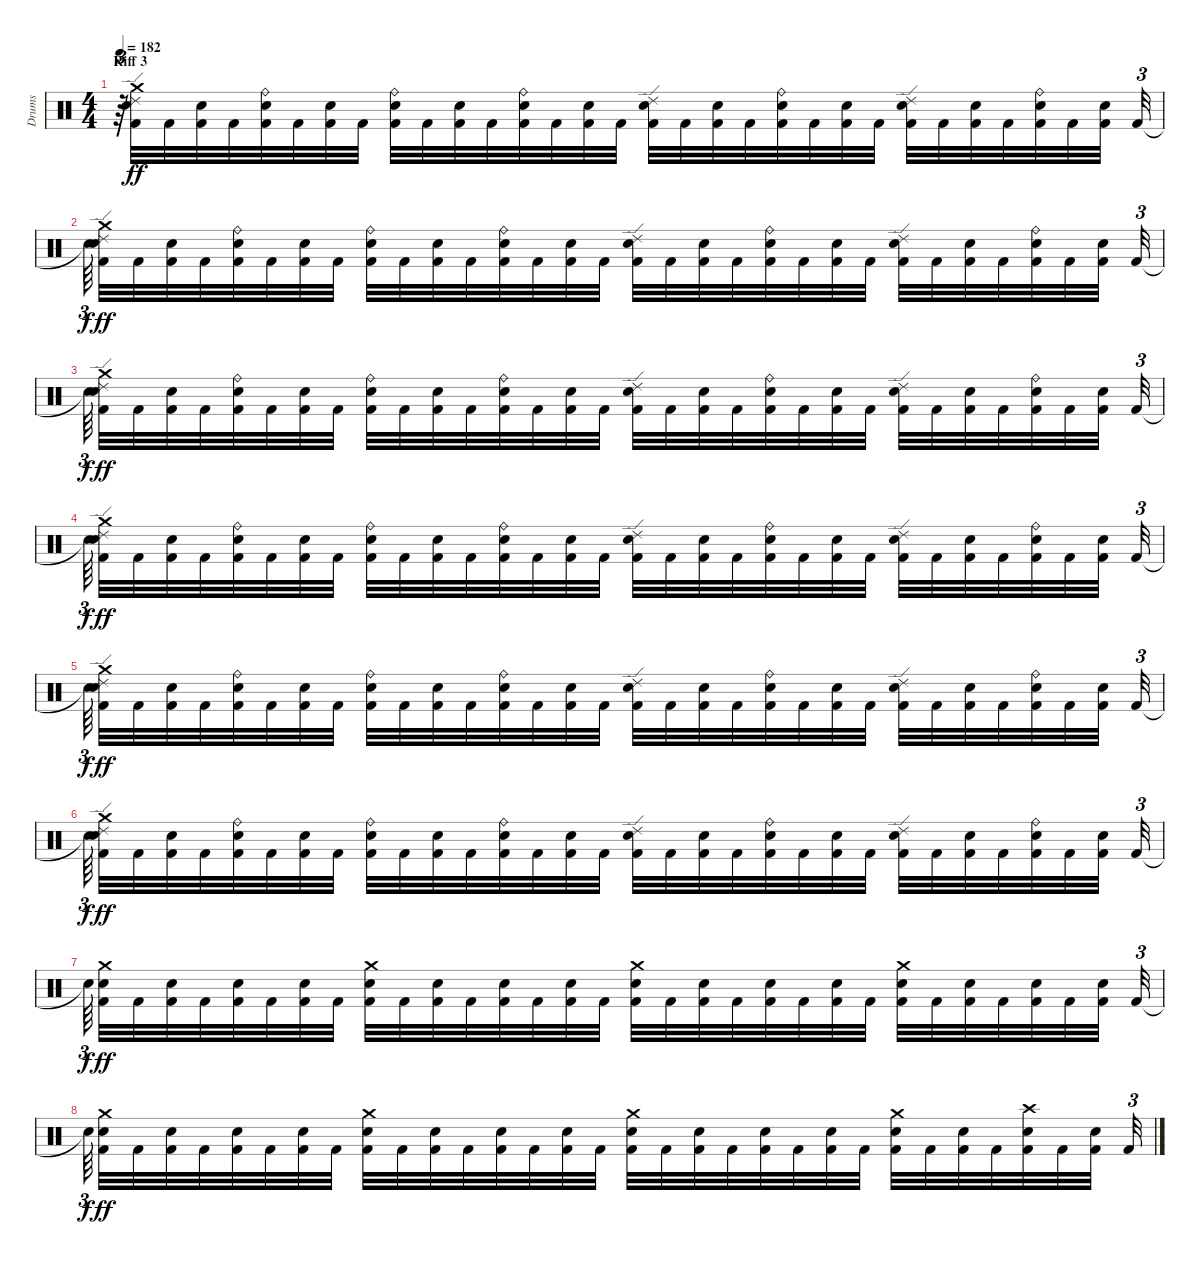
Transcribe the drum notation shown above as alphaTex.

\track ("Drums" "Drums") {instrument percussion}
\staff {score}
\articulation defaults
\ts (4 4)
\section ("" "Riff 3")
\tempo 182
\clef neutral
\ks c
r.64{tu (3 2) dy f} ("Kick (hit) 2" "Snare (hit) 2" "Ride (edge) 2" "Crash medium (hit)").32{dy ff} "Kick (hit) 2".32 ("Kick (hit) 2" "Snare (hit) 2").32 "Kick (hit) 2".32 ("Kick (hit) 2" "Snare (hit) 2" "Ride (bell)").32 "Kick (hit) 2".32 ("Kick (hit) 2" "Snare (hit) 2").32 "Kick (hit) 2".32 ("Kick (hit) 2" "Snare (hit) 2" "Ride (bell)").32 "Kick (hit) 2".32 ("Kick (hit) 2" "Snare (hit) 2").32 "Kick (hit) 2".32 ("Kick (hit) 2" "Snare (hit) 2" "Ride (bell)").32 "Kick (hit) 2".32 ("Kick (hit) 2" "Snare (hit) 2").32 "Kick (hit) 2".32 ("Kick (hit) 2" "Snare (hit) 2" "Ride (edge) 2").32 "Kick (hit) 2".32 ("Kick (hit) 2" "Snare (hit) 2").32 "Kick (hit) 2".32 ("Kick (hit) 2" "Snare (hit) 2" "Ride (bell)").32 "Kick (hit) 2".32 ("Kick (hit) 2" "Snare (hit) 2").32 "Kick (hit) 2".32 ("Kick (hit) 2" "Snare (hit) 2" "Ride (edge) 2").32 "Kick (hit) 2".32 ("Kick (hit) 2" "Snare (hit) 2").32 "Kick (hit) 2".32 ("Kick (hit) 2" "Snare (hit) 2" "Ride (bell)").32 "Kick (hit) 2".32 ("Kick (hit) 2" "Snare (hit) 2").32{beam splitsecondary} "Kick (hit) 2".32{tu (3 2)} |
"Snare (hit)"{t}.64{tu (3 2) dy f beam splitsecondary} ("Kick (hit) 2" "Snare (hit) 2" "Ride (edge) 2" "Crash medium (hit)").32{dy ff} "Kick (hit) 2".32 ("Kick (hit) 2" "Snare (hit) 2").32 "Kick (hit) 2".32 ("Kick (hit) 2" "Snare (hit) 2" "Ride (bell)").32 "Kick (hit) 2".32 ("Kick (hit) 2" "Snare (hit) 2").32 "Kick (hit) 2".32 ("Kick (hit) 2" "Snare (hit) 2" "Ride (bell)").32 "Kick (hit) 2".32 ("Kick (hit) 2" "Snare (hit) 2").32 "Kick (hit) 2".32 ("Kick (hit) 2" "Snare (hit) 2" "Ride (bell)").32 "Kick (hit) 2".32 ("Kick (hit) 2" "Snare (hit) 2").32 "Kick (hit) 2".32 ("Kick (hit) 2" "Snare (hit) 2" "Ride (edge) 2").32 "Kick (hit) 2".32 ("Kick (hit) 2" "Snare (hit) 2").32 "Kick (hit) 2".32 ("Kick (hit) 2" "Snare (hit) 2" "Ride (bell)").32 "Kick (hit) 2".32 ("Kick (hit) 2" "Snare (hit) 2").32 "Kick (hit) 2".32 ("Kick (hit) 2" "Snare (hit) 2" "Ride (edge) 2").32 "Kick (hit) 2".32 ("Kick (hit) 2" "Snare (hit) 2").32 "Kick (hit) 2".32 ("Kick (hit) 2" "Snare (hit) 2" "Ride (bell)").32 "Kick (hit) 2".32 ("Kick (hit) 2" "Snare (hit) 2").32{beam splitsecondary} "Kick (hit) 2".32{tu (3 2)} |
"Snare (hit)"{t}.64{tu (3 2) dy f beam splitsecondary} ("Kick (hit) 2" "Snare (hit) 2" "Ride (edge) 2" "Crash medium (hit)").32{dy ff} "Kick (hit) 2".32 ("Kick (hit) 2" "Snare (hit) 2").32 "Kick (hit) 2".32 ("Kick (hit) 2" "Snare (hit) 2" "Ride (bell)").32 "Kick (hit) 2".32 ("Kick (hit) 2" "Snare (hit) 2").32 "Kick (hit) 2".32 ("Kick (hit) 2" "Snare (hit) 2" "Ride (bell)").32 "Kick (hit) 2".32 ("Kick (hit) 2" "Snare (hit) 2").32 "Kick (hit) 2".32 ("Kick (hit) 2" "Snare (hit) 2" "Ride (bell)").32 "Kick (hit) 2".32 ("Kick (hit) 2" "Snare (hit) 2").32 "Kick (hit) 2".32 ("Kick (hit) 2" "Snare (hit) 2" "Ride (edge) 2").32 "Kick (hit) 2".32 ("Kick (hit) 2" "Snare (hit) 2").32 "Kick (hit) 2".32 ("Kick (hit) 2" "Snare (hit) 2" "Ride (bell)").32 "Kick (hit) 2".32 ("Kick (hit) 2" "Snare (hit) 2").32 "Kick (hit) 2".32 ("Kick (hit) 2" "Snare (hit) 2" "Ride (edge) 2").32 "Kick (hit) 2".32 ("Kick (hit) 2" "Snare (hit) 2").32 "Kick (hit) 2".32 ("Kick (hit) 2" "Snare (hit) 2" "Ride (bell)").32 "Kick (hit) 2".32 ("Kick (hit) 2" "Snare (hit) 2").32{beam splitsecondary} "Kick (hit) 2".32{tu (3 2)} |
"Snare (hit)"{t}.64{tu (3 2) dy f beam splitsecondary} ("Kick (hit) 2" "Snare (hit) 2" "Ride (edge) 2" "Crash medium (hit)").32{dy ff} "Kick (hit) 2".32 ("Kick (hit) 2" "Snare (hit) 2").32 "Kick (hit) 2".32 ("Kick (hit) 2" "Snare (hit) 2" "Ride (bell)").32 "Kick (hit) 2".32 ("Kick (hit) 2" "Snare (hit) 2").32 "Kick (hit) 2".32 ("Kick (hit) 2" "Snare (hit) 2" "Ride (bell)").32 "Kick (hit) 2".32 ("Kick (hit) 2" "Snare (hit) 2").32 "Kick (hit) 2".32 ("Kick (hit) 2" "Snare (hit) 2" "Ride (bell)").32 "Kick (hit) 2".32 ("Kick (hit) 2" "Snare (hit) 2").32 "Kick (hit) 2".32 ("Kick (hit) 2" "Snare (hit) 2" "Ride (edge) 2").32 "Kick (hit) 2".32 ("Kick (hit) 2" "Snare (hit) 2").32 "Kick (hit) 2".32 ("Kick (hit) 2" "Snare (hit) 2" "Ride (bell)").32 "Kick (hit) 2".32 ("Kick (hit) 2" "Snare (hit) 2").32 "Kick (hit) 2".32 ("Kick (hit) 2" "Snare (hit) 2" "Ride (edge) 2").32 "Kick (hit) 2".32 ("Kick (hit) 2" "Snare (hit) 2").32 "Kick (hit) 2".32 ("Kick (hit) 2" "Snare (hit) 2" "Ride (bell)").32 "Kick (hit) 2".32 ("Kick (hit) 2" "Snare (hit) 2").32{beam splitsecondary} "Kick (hit) 2".32{tu (3 2)} |
"Snare (hit)"{t}.64{tu (3 2) dy f beam splitsecondary} ("Kick (hit) 2" "Snare (hit) 2" "Ride (edge) 2" "Crash medium (hit)").32{dy ff} "Kick (hit) 2".32 ("Kick (hit) 2" "Snare (hit) 2").32 "Kick (hit) 2".32 ("Kick (hit) 2" "Snare (hit) 2" "Ride (bell)").32 "Kick (hit) 2".32 ("Kick (hit) 2" "Snare (hit) 2").32 "Kick (hit) 2".32 ("Kick (hit) 2" "Snare (hit) 2" "Ride (bell)").32 "Kick (hit) 2".32 ("Kick (hit) 2" "Snare (hit) 2").32 "Kick (hit) 2".32 ("Kick (hit) 2" "Snare (hit) 2" "Ride (bell)").32 "Kick (hit) 2".32 ("Kick (hit) 2" "Snare (hit) 2").32 "Kick (hit) 2".32 ("Kick (hit) 2" "Snare (hit) 2" "Ride (edge) 2").32 "Kick (hit) 2".32 ("Kick (hit) 2" "Snare (hit) 2").32 "Kick (hit) 2".32 ("Kick (hit) 2" "Snare (hit) 2" "Ride (bell)").32 "Kick (hit) 2".32 ("Kick (hit) 2" "Snare (hit) 2").32 "Kick (hit) 2".32 ("Kick (hit) 2" "Snare (hit) 2" "Ride (edge) 2").32 "Kick (hit) 2".32 ("Kick (hit) 2" "Snare (hit) 2").32 "Kick (hit) 2".32 ("Kick (hit) 2" "Snare (hit) 2" "Ride (bell)").32 "Kick (hit) 2".32 ("Kick (hit) 2" "Snare (hit) 2").32{beam splitsecondary} "Kick (hit) 2".32{tu (3 2)} |
"Snare (hit)"{t}.64{tu (3 2) dy f beam splitsecondary} ("Kick (hit) 2" "Snare (hit) 2" "Ride (edge) 2" "Crash medium (hit)").32{dy ff} "Kick (hit) 2".32 ("Kick (hit) 2" "Snare (hit) 2").32 "Kick (hit) 2".32 ("Kick (hit) 2" "Snare (hit) 2" "Ride (bell)").32 "Kick (hit) 2".32 ("Kick (hit) 2" "Snare (hit) 2").32 "Kick (hit) 2".32 ("Kick (hit) 2" "Snare (hit) 2" "Ride (bell)").32 "Kick (hit) 2".32 ("Kick (hit) 2" "Snare (hit) 2").32 "Kick (hit) 2".32 ("Kick (hit) 2" "Snare (hit) 2" "Ride (bell)").32 "Kick (hit) 2".32 ("Kick (hit) 2" "Snare (hit) 2").32 "Kick (hit) 2".32 ("Kick (hit) 2" "Snare (hit) 2" "Ride (edge) 2").32 "Kick (hit) 2".32 ("Kick (hit) 2" "Snare (hit) 2").32 "Kick (hit) 2".32 ("Kick (hit) 2" "Snare (hit) 2" "Ride (bell)").32 "Kick (hit) 2".32 ("Kick (hit) 2" "Snare (hit) 2").32 "Kick (hit) 2".32 ("Kick (hit) 2" "Snare (hit) 2" "Ride (edge) 2").32 "Kick (hit) 2".32 ("Kick (hit) 2" "Snare (hit) 2").32 "Kick (hit) 2".32 ("Kick (hit) 2" "Snare (hit) 2" "Ride (bell)").32 "Kick (hit) 2".32 ("Kick (hit) 2" "Snare (hit) 2").32{beam splitsecondary} "Kick (hit) 2".32{tu (3 2)} |
"Snare (hit)"{t}.64{tu (3 2) dy f beam splitsecondary} ("Crash medium (hit)" "Kick (hit) 2" "Snare (hit) 2").32{dy ff} "Kick (hit) 2".32 ("Kick (hit) 2" "Snare (hit) 2").32 "Kick (hit) 2".32 ("Kick (hit) 2" "Snare (hit) 2").32 "Kick (hit) 2".32 ("Kick (hit) 2" "Snare (hit) 2").32 "Kick (hit) 2".32 ("Crash medium (hit)" "Kick (hit) 2" "Snare (hit) 2").32 "Kick (hit) 2".32 ("Kick (hit) 2" "Snare (hit) 2").32 "Kick (hit) 2".32 ("Kick (hit) 2" "Snare (hit) 2").32 "Kick (hit) 2".32 ("Kick (hit) 2" "Snare (hit) 2").32 "Kick (hit) 2".32 ("Crash medium (hit)" "Kick (hit) 2" "Snare (hit) 2").32 "Kick (hit) 2".32 ("Kick (hit) 2" "Snare (hit) 2").32 "Kick (hit) 2".32 ("Kick (hit) 2" "Snare (hit) 2").32 "Kick (hit) 2".32 ("Kick (hit) 2" "Snare (hit) 2").32 "Kick (hit) 2".32 ("Crash medium (hit)" "Kick (hit) 2" "Snare (hit) 2").32 "Kick (hit) 2".32 ("Kick (hit) 2" "Snare (hit) 2").32 "Kick (hit) 2".32 ("Kick (hit) 2" "Snare (hit) 2").32 "Kick (hit) 2".32 ("Kick (hit) 2" "Snare (hit) 2").32{beam splitsecondary} "Kick (hit) 2".32{tu (3 2)} |
"Snare (hit)"{t}.64{tu (3 2) dy f beam splitsecondary} ("Crash medium (hit)" "Kick (hit) 2" "Snare (hit) 2").32{dy ff} "Kick (hit) 2".32 ("Kick (hit) 2" "Snare (hit) 2").32 "Kick (hit) 2".32 ("Kick (hit) 2" "Snare (hit) 2").32 "Kick (hit) 2".32 ("Kick (hit) 2" "Snare (hit) 2").32 "Kick (hit) 2".32 ("Crash medium (hit)" "Kick (hit) 2" "Snare (hit) 2").32 "Kick (hit) 2".32 ("Kick (hit) 2" "Snare (hit) 2").32 "Kick (hit) 2".32 ("Kick (hit) 2" "Snare (hit) 2").32 "Kick (hit) 2".32 ("Kick (hit) 2" "Snare (hit) 2").32 "Kick (hit) 2".32 ("Crash medium (hit)" "Kick (hit) 2" "Snare (hit) 2").32 "Kick (hit) 2".32 ("Kick (hit) 2" "Snare (hit) 2").32 "Kick (hit) 2".32 ("Kick (hit) 2" "Snare (hit) 2").32 "Kick (hit) 2".32 ("Kick (hit) 2" "Snare (hit) 2").32 "Kick (hit) 2".32 ("Crash medium (hit)" "Kick (hit) 2" "Snare (hit) 2").32 "Kick (hit) 2".32 ("Kick (hit) 2" "Snare (hit) 2").32 "Kick (hit) 2".32 ("Crash high (hit)" "Kick (hit) 2" "Snare (hit) 2").32 "Kick (hit) 2".32 ("Kick (hit) 2" "Snare (hit) 2").32{beam splitsecondary} "Kick (hit) 2".32{tu (3 2)}
